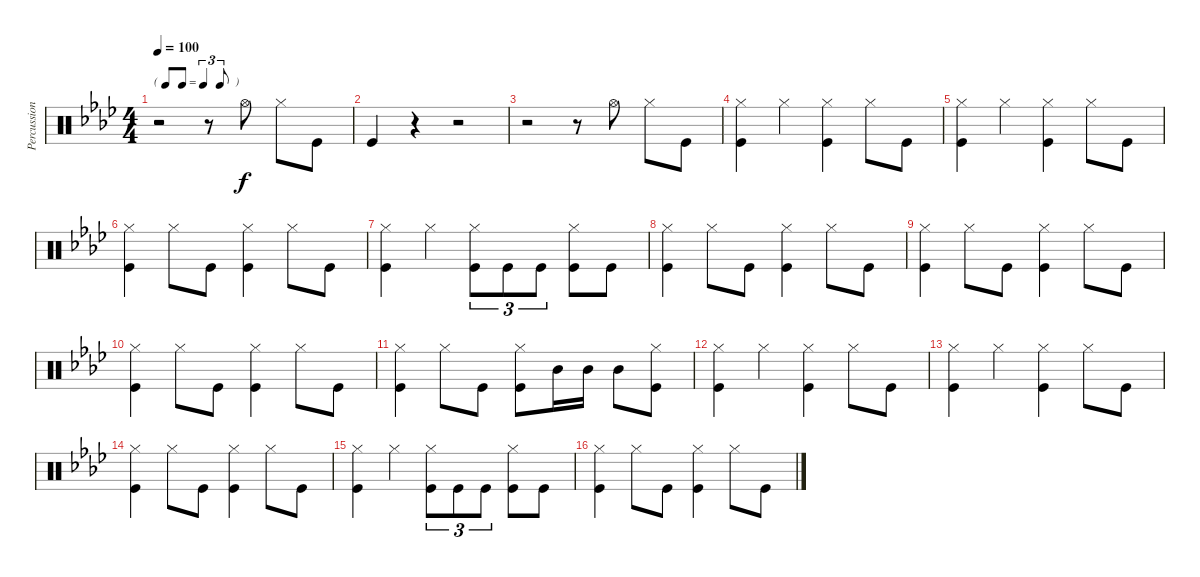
\track ("Percussion" "Percussion") {instrument percussion}
\staff {score}
\articulation defaults
\ts (4 4)
\tf triplet8th
\tempo 100
\clef neutral
\ks ab
r.2{dy f} r.8 "Hi-Hat (open)".8 "Hi-Hat (closed)".8 "Kick (hit)".8 |
"Kick (hit)".4 r.4 r.2 |
r.2 r.8 "Hi-Hat (open)".8 "Hi-Hat (closed)".8 "Kick (hit)".8 |
("Hi-Hat (closed)" "Kick (hit)").4 "Hi-Hat (closed)".4 ("Hi-Hat (closed)" "Kick (hit)").4 "Hi-Hat (closed)".8 "Kick (hit)".8 |
("Hi-Hat (closed)" "Kick (hit)").4 "Hi-Hat (closed)".4 ("Hi-Hat (closed)" "Kick (hit)").4 "Hi-Hat (closed)".8 "Kick (hit)".8 |
("Hi-Hat (closed)" "Kick (hit)").4 "Hi-Hat (closed)".8 "Kick (hit)".8 ("Hi-Hat (closed)" "Kick (hit)").4 "Hi-Hat (closed)".8 "Kick (hit)".8 |
("Hi-Hat (closed)" "Kick (hit)").4 "Hi-Hat (closed)".4 ("Hi-Hat (closed)" "Kick (hit)").8{tu (3 2)} "Kick (hit)".8{tu (3 2)} "Kick (hit)".8{tu (3 2)} ("Hi-Hat (closed)" "Kick (hit)").8 "Kick (hit)".8 |
("Hi-Hat (closed)" "Kick (hit)").4 "Hi-Hat (closed)".8 "Kick (hit)".8 ("Hi-Hat (closed)" "Kick (hit)").4 "Hi-Hat (closed)".8 "Kick (hit)".8 |
("Hi-Hat (closed)" "Kick (hit)").4 "Hi-Hat (closed)".8 "Kick (hit)".8 ("Hi-Hat (closed)" "Kick (hit)").4 "Hi-Hat (closed)".8 "Kick (hit)".8 |
("Hi-Hat (closed)" "Kick (hit)").4 "Hi-Hat (closed)".8 "Kick (hit)".8 ("Hi-Hat (closed)" "Kick (hit)").4 "Hi-Hat (closed)".8 "Kick (hit)".8 |
("Hi-Hat (closed)" "Kick (hit)").4 "Hi-Hat (closed)".8 "Kick (hit)".8 ("Hi-Hat (closed)" "Kick (hit)").8 "Mid Tom (hit)".16 "Mid Tom (hit)".16 "Mid Tom (hit)".8 ("Hi-Hat (closed)" "Kick (hit)").8 |
("Hi-Hat (closed)" "Kick (hit)").4 "Hi-Hat (closed)".4 ("Hi-Hat (closed)" "Kick (hit)").4 "Hi-Hat (closed)".8 "Kick (hit)".8 |
("Hi-Hat (closed)" "Kick (hit)").4 "Hi-Hat (closed)".4 ("Hi-Hat (closed)" "Kick (hit)").4 "Hi-Hat (closed)".8 "Kick (hit)".8 |
("Hi-Hat (closed)" "Kick (hit)").4 "Hi-Hat (closed)".8 "Kick (hit)".8 ("Hi-Hat (closed)" "Kick (hit)").4 "Hi-Hat (closed)".8 "Kick (hit)".8 |
("Hi-Hat (closed)" "Kick (hit)").4 "Hi-Hat (closed)".4 ("Hi-Hat (closed)" "Kick (hit)").8{tu (3 2)} "Kick (hit)".8{tu (3 2)} "Kick (hit)".8{tu (3 2)} ("Hi-Hat (closed)" "Kick (hit)").8 "Kick (hit)".8 |
("Hi-Hat (closed)" "Kick (hit)").4 "Hi-Hat (closed)".8 "Kick (hit)".8 ("Hi-Hat (closed)" "Kick (hit)").4 "Hi-Hat (closed)".8 "Kick (hit)".8
